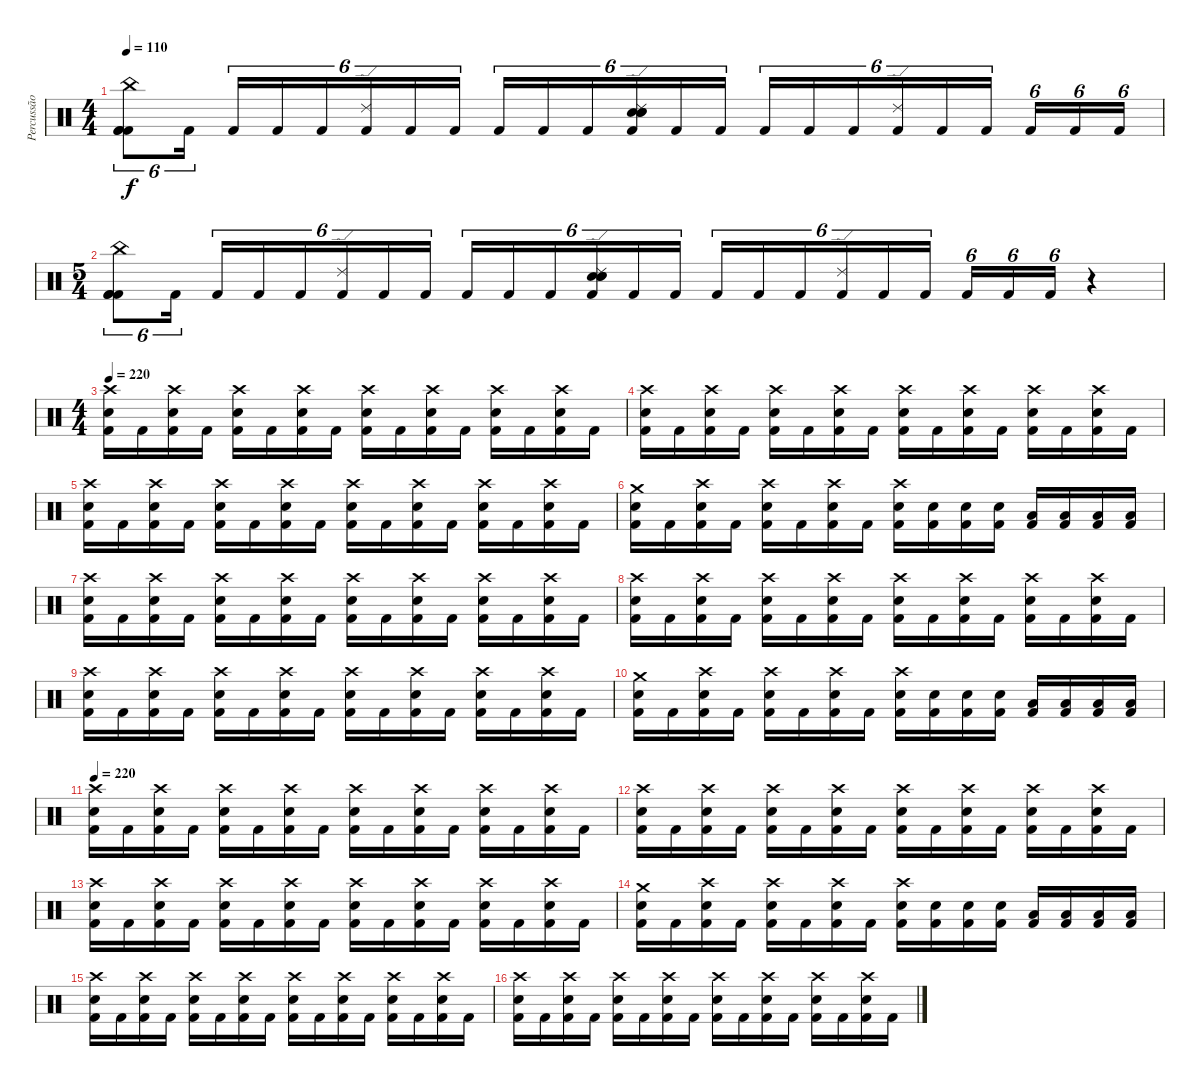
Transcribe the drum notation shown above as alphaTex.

\track ("Percussão" "Percussão") {instrument percussion}
\staff {score}
\articulation defaults
\ts (4 4)
\tempo 110
\clef neutral
\ks c
("China (hit)" "Kick (hit) 2" "Kick (hit) 2" "Kick (hit) 2").8{tu (6 4) dy f} "Kick (hit) 2".16{tu (6 4) beam splitsecondary} "Kick (hit) 2".16{tu (6 4)} "Kick (hit) 2".16{tu (6 4)} "Kick (hit) 2".16{tu (6 4)} ("Ride (edge) 2" "Kick (hit) 2").16{tu (6 4)} "Kick (hit) 2".16{tu (6 4)} "Kick (hit) 2".16{tu (6 4) beam splitsecondary} "Kick (hit) 2".16{tu (6 4)} "Kick (hit) 2".16{tu (6 4)} "Kick (hit) 2".16{tu (6 4)} ("Ride (edge) 2" "Electric Snare (hit)" "Electric Snare (hit)" "Electric Snare (hit)" "Kick (hit) 2").16{tu (6 4)} "Kick (hit) 2".16{tu (6 4)} "Kick (hit) 2".16{tu (6 4) beam splitsecondary} "Kick (hit) 2".16{tu (6 4)} "Kick (hit) 2".16{tu (6 4)} "Kick (hit) 2".16{tu (6 4)} ("Ride (edge) 2" "Kick (hit) 2").16{tu (6 4)} "Kick (hit) 2".16{tu (6 4)} "Kick (hit) 2".16{tu (6 4) beam splitsecondary} "Kick (hit) 2".16{tu (6 4)} "Kick (hit) 2".16{tu (6 4)} "Kick (hit) 2".16{tu (6 4)} |
\ts (5 4)
("China (hit)" "Kick (hit) 2" "Kick (hit) 2" "Kick (hit) 2").8{tu (6 4)} "Kick (hit) 2".16{tu (6 4) beam splitsecondary} "Kick (hit) 2".16{tu (6 4)} "Kick (hit) 2".16{tu (6 4)} "Kick (hit) 2".16{tu (6 4)} ("Ride (edge) 2" "Kick (hit) 2").16{tu (6 4)} "Kick (hit) 2".16{tu (6 4)} "Kick (hit) 2".16{tu (6 4) beam splitsecondary} "Kick (hit) 2".16{tu (6 4)} "Kick (hit) 2".16{tu (6 4)} "Kick (hit) 2".16{tu (6 4)} ("Ride (edge) 2" "Electric Snare (hit)" "Electric Snare (hit)" "Electric Snare (hit)" "Kick (hit) 2").16{tu (6 4)} "Kick (hit) 2".16{tu (6 4)} "Kick (hit) 2".16{tu (6 4) beam splitsecondary} "Kick (hit) 2".16{tu (6 4)} "Kick (hit) 2".16{tu (6 4)} "Kick (hit) 2".16{tu (6 4)} ("Ride (edge) 2" "Kick (hit) 2").16{tu (6 4)} "Kick (hit) 2".16{tu (6 4)} "Kick (hit) 2".16{tu (6 4) beam splitsecondary} "Kick (hit) 2".16{tu (6 4)} "Kick (hit) 2".16{tu (6 4)} "Kick (hit) 2".16{tu (6 4)} r.4 |
\ts (4 4)
\tempo 220
("Crash high (hit)" "Electric Snare (hit)" "Kick (hit) 2").16 "Kick (hit) 2".16 ("Crash high (hit)" "Electric Snare (hit)" "Kick (hit) 2").16 "Kick (hit) 2".16 ("Crash high (hit)" "Electric Snare (hit)" "Kick (hit) 2").16 "Kick (hit) 2".16 ("Crash high (hit)" "Electric Snare (hit)" "Kick (hit) 2").16 "Kick (hit) 2".16 ("Crash high (hit)" "Electric Snare (hit)" "Kick (hit) 2").16 "Kick (hit) 2".16 ("Crash high (hit)" "Electric Snare (hit)" "Kick (hit) 2").16 "Kick (hit) 2".16 ("Crash high (hit)" "Electric Snare (hit)" "Kick (hit) 2").16 "Kick (hit) 2".16 ("Crash high (hit)" "Electric Snare (hit)" "Kick (hit) 2").16 "Kick (hit) 2".16 |
("Crash high (hit)" "Electric Snare (hit)" "Kick (hit) 2").16 "Kick (hit) 2".16 ("Crash high (hit)" "Electric Snare (hit)" "Kick (hit) 2").16 "Kick (hit) 2".16 ("Crash high (hit)" "Electric Snare (hit)" "Kick (hit) 2").16 "Kick (hit) 2".16 ("Crash high (hit)" "Electric Snare (hit)" "Kick (hit) 2").16 "Kick (hit) 2".16 ("Crash high (hit)" "Electric Snare (hit)" "Kick (hit) 2").16 "Kick (hit) 2".16 ("Crash high (hit)" "Electric Snare (hit)" "Kick (hit) 2").16 "Kick (hit) 2".16 ("Crash high (hit)" "Electric Snare (hit)" "Kick (hit) 2").16 "Kick (hit) 2".16 ("Crash high (hit)" "Electric Snare (hit)" "Kick (hit) 2").16 "Kick (hit) 2".16 |
("Crash high (hit)" "Electric Snare (hit)" "Kick (hit) 2").16 "Kick (hit) 2".16 ("Crash high (hit)" "Electric Snare (hit)" "Kick (hit) 2").16 "Kick (hit) 2".16 ("Crash high (hit)" "Electric Snare (hit)" "Kick (hit) 2").16 "Kick (hit) 2".16 ("Crash high (hit)" "Electric Snare (hit)" "Kick (hit) 2").16 "Kick (hit) 2".16 ("Crash high (hit)" "Electric Snare (hit)" "Kick (hit) 2").16 "Kick (hit) 2".16 ("Crash high (hit)" "Electric Snare (hit)" "Kick (hit) 2").16 "Kick (hit) 2".16 ("Crash high (hit)" "Electric Snare (hit)" "Kick (hit) 2").16 "Kick (hit) 2".16 ("Crash high (hit)" "Electric Snare (hit)" "Kick (hit) 2").16 "Kick (hit) 2".16 |
("Crash medium (hit)" "Electric Snare (hit)" "Kick (hit) 2").16 "Kick (hit) 2".16 ("Crash high (hit)" "Electric Snare (hit)" "Kick (hit) 2").16 "Kick (hit) 2".16 ("Crash high (hit)" "Electric Snare (hit)" "Kick (hit) 2").16 "Kick (hit) 2".16 ("Crash high (hit)" "Electric Snare (hit)" "Kick (hit) 2").16 "Kick (hit) 2".16 ("Crash high (hit)" "Electric Snare (hit)" "Kick (hit) 2").16 ("Electric Snare (hit)" "Kick (hit) 2").16 ("Electric Snare (hit)" "Kick (hit) 2").16 ("Electric Snare (hit)" "Kick (hit) 2").16 ("Low Tom (hit)" "Kick (hit) 2").16 ("Low Tom (hit)" "Kick (hit) 2").16 ("Low Tom (hit)" "Kick (hit) 2").16 ("Low Tom (hit)" "Kick (hit) 2").16 |
("Crash high (hit)" "Electric Snare (hit)" "Kick (hit) 2").16 "Kick (hit) 2".16 ("Crash high (hit)" "Electric Snare (hit)" "Kick (hit) 2").16 "Kick (hit) 2".16 ("Crash high (hit)" "Electric Snare (hit)" "Kick (hit) 2").16 "Kick (hit) 2".16 ("Crash high (hit)" "Electric Snare (hit)" "Kick (hit) 2").16 "Kick (hit) 2".16 ("Crash high (hit)" "Electric Snare (hit)" "Kick (hit) 2").16 "Kick (hit) 2".16 ("Crash high (hit)" "Electric Snare (hit)" "Kick (hit) 2").16 "Kick (hit) 2".16 ("Crash high (hit)" "Electric Snare (hit)" "Kick (hit) 2").16 "Kick (hit) 2".16 ("Crash high (hit)" "Electric Snare (hit)" "Kick (hit) 2").16 "Kick (hit) 2".16 |
("Crash high (hit)" "Electric Snare (hit)" "Kick (hit) 2").16 "Kick (hit) 2".16 ("Crash high (hit)" "Electric Snare (hit)" "Kick (hit) 2").16 "Kick (hit) 2".16 ("Crash high (hit)" "Electric Snare (hit)" "Kick (hit) 2").16 "Kick (hit) 2".16 ("Crash high (hit)" "Electric Snare (hit)" "Kick (hit) 2").16 "Kick (hit) 2".16 ("Crash high (hit)" "Electric Snare (hit)" "Kick (hit) 2").16 "Kick (hit) 2".16 ("Crash high (hit)" "Electric Snare (hit)" "Kick (hit) 2").16 "Kick (hit) 2".16 ("Crash high (hit)" "Electric Snare (hit)" "Kick (hit) 2").16 "Kick (hit) 2".16 ("Crash high (hit)" "Electric Snare (hit)" "Kick (hit) 2").16 "Kick (hit) 2".16 |
("Crash high (hit)" "Electric Snare (hit)" "Kick (hit) 2").16 "Kick (hit) 2".16 ("Crash high (hit)" "Electric Snare (hit)" "Kick (hit) 2").16 "Kick (hit) 2".16 ("Crash high (hit)" "Electric Snare (hit)" "Kick (hit) 2").16 "Kick (hit) 2".16 ("Crash high (hit)" "Electric Snare (hit)" "Kick (hit) 2").16 "Kick (hit) 2".16 ("Crash high (hit)" "Electric Snare (hit)" "Kick (hit) 2").16 "Kick (hit) 2".16 ("Crash high (hit)" "Electric Snare (hit)" "Kick (hit) 2").16 "Kick (hit) 2".16 ("Crash high (hit)" "Electric Snare (hit)" "Kick (hit) 2").16 "Kick (hit) 2".16 ("Crash high (hit)" "Electric Snare (hit)" "Kick (hit) 2").16 "Kick (hit) 2".16 |
("Crash medium (hit)" "Electric Snare (hit)" "Kick (hit) 2").16 "Kick (hit) 2".16 ("Crash high (hit)" "Electric Snare (hit)" "Kick (hit) 2").16 "Kick (hit) 2".16 ("Crash high (hit)" "Electric Snare (hit)" "Kick (hit) 2").16 "Kick (hit) 2".16 ("Crash high (hit)" "Electric Snare (hit)" "Kick (hit) 2").16 "Kick (hit) 2".16 ("Crash high (hit)" "Electric Snare (hit)" "Kick (hit) 2").16 ("Electric Snare (hit)" "Kick (hit) 2").16 ("Electric Snare (hit)" "Kick (hit) 2").16 ("Electric Snare (hit)" "Kick (hit) 2").16 ("Low Tom (hit)" "Kick (hit) 2").16 ("Low Tom (hit)" "Kick (hit) 2").16 ("Low Tom (hit)" "Kick (hit) 2").16 ("Low Tom (hit)" "Kick (hit) 2").16 |
\tempo 220
("Crash high (hit)" "Electric Snare (hit)" "Kick (hit) 2").16 "Kick (hit) 2".16 ("Crash high (hit)" "Electric Snare (hit)" "Kick (hit) 2").16 "Kick (hit) 2".16 ("Crash high (hit)" "Electric Snare (hit)" "Kick (hit) 2").16 "Kick (hit) 2".16 ("Crash high (hit)" "Electric Snare (hit)" "Kick (hit) 2").16 "Kick (hit) 2".16 ("Crash high (hit)" "Electric Snare (hit)" "Kick (hit) 2").16 "Kick (hit) 2".16 ("Crash high (hit)" "Electric Snare (hit)" "Kick (hit) 2").16 "Kick (hit) 2".16 ("Crash high (hit)" "Electric Snare (hit)" "Kick (hit) 2").16 "Kick (hit) 2".16 ("Crash high (hit)" "Electric Snare (hit)" "Kick (hit) 2").16 "Kick (hit) 2".16 |
("Crash high (hit)" "Electric Snare (hit)" "Kick (hit) 2").16 "Kick (hit) 2".16 ("Crash high (hit)" "Electric Snare (hit)" "Kick (hit) 2").16 "Kick (hit) 2".16 ("Crash high (hit)" "Electric Snare (hit)" "Kick (hit) 2").16 "Kick (hit) 2".16 ("Crash high (hit)" "Electric Snare (hit)" "Kick (hit) 2").16 "Kick (hit) 2".16 ("Crash high (hit)" "Electric Snare (hit)" "Kick (hit) 2").16 "Kick (hit) 2".16 ("Crash high (hit)" "Electric Snare (hit)" "Kick (hit) 2").16 "Kick (hit) 2".16 ("Crash high (hit)" "Electric Snare (hit)" "Kick (hit) 2").16 "Kick (hit) 2".16 ("Crash high (hit)" "Electric Snare (hit)" "Kick (hit) 2").16 "Kick (hit) 2".16 |
("Crash high (hit)" "Electric Snare (hit)" "Kick (hit) 2").16 "Kick (hit) 2".16 ("Crash high (hit)" "Electric Snare (hit)" "Kick (hit) 2").16 "Kick (hit) 2".16 ("Crash high (hit)" "Electric Snare (hit)" "Kick (hit) 2").16 "Kick (hit) 2".16 ("Crash high (hit)" "Electric Snare (hit)" "Kick (hit) 2").16 "Kick (hit) 2".16 ("Crash high (hit)" "Electric Snare (hit)" "Kick (hit) 2").16 "Kick (hit) 2".16 ("Crash high (hit)" "Electric Snare (hit)" "Kick (hit) 2").16 "Kick (hit) 2".16 ("Crash high (hit)" "Electric Snare (hit)" "Kick (hit) 2").16 "Kick (hit) 2".16 ("Crash high (hit)" "Electric Snare (hit)" "Kick (hit) 2").16 "Kick (hit) 2".16 |
("Crash medium (hit)" "Electric Snare (hit)" "Kick (hit) 2").16 "Kick (hit) 2".16 ("Crash high (hit)" "Electric Snare (hit)" "Kick (hit) 2").16 "Kick (hit) 2".16 ("Crash high (hit)" "Electric Snare (hit)" "Kick (hit) 2").16 "Kick (hit) 2".16 ("Crash high (hit)" "Electric Snare (hit)" "Kick (hit) 2").16 "Kick (hit) 2".16 ("Crash high (hit)" "Electric Snare (hit)" "Kick (hit) 2").16 ("Electric Snare (hit)" "Kick (hit) 2").16 ("Electric Snare (hit)" "Kick (hit) 2").16 ("Electric Snare (hit)" "Kick (hit) 2").16 ("Low Tom (hit)" "Kick (hit) 2").16 ("Low Tom (hit)" "Kick (hit) 2").16 ("Low Tom (hit)" "Kick (hit) 2").16 ("Low Tom (hit)" "Kick (hit) 2").16 |
("Crash high (hit)" "Electric Snare (hit)" "Kick (hit) 2").16 "Kick (hit) 2".16 ("Crash high (hit)" "Electric Snare (hit)" "Kick (hit) 2").16 "Kick (hit) 2".16 ("Crash high (hit)" "Electric Snare (hit)" "Kick (hit) 2").16 "Kick (hit) 2".16 ("Crash high (hit)" "Electric Snare (hit)" "Kick (hit) 2").16 "Kick (hit) 2".16 ("Crash high (hit)" "Electric Snare (hit)" "Kick (hit) 2").16 "Kick (hit) 2".16 ("Crash high (hit)" "Electric Snare (hit)" "Kick (hit) 2").16 "Kick (hit) 2".16 ("Crash high (hit)" "Electric Snare (hit)" "Kick (hit) 2").16 "Kick (hit) 2".16 ("Crash high (hit)" "Electric Snare (hit)" "Kick (hit) 2").16 "Kick (hit) 2".16 |
("Crash high (hit)" "Electric Snare (hit)" "Kick (hit) 2").16 "Kick (hit) 2".16 ("Crash high (hit)" "Electric Snare (hit)" "Kick (hit) 2").16 "Kick (hit) 2".16 ("Crash high (hit)" "Electric Snare (hit)" "Kick (hit) 2").16 "Kick (hit) 2".16 ("Crash high (hit)" "Electric Snare (hit)" "Kick (hit) 2").16 "Kick (hit) 2".16 ("Crash high (hit)" "Electric Snare (hit)" "Kick (hit) 2").16 "Kick (hit) 2".16 ("Crash high (hit)" "Electric Snare (hit)" "Kick (hit) 2").16 "Kick (hit) 2".16 ("Crash high (hit)" "Electric Snare (hit)" "Kick (hit) 2").16 "Kick (hit) 2".16 ("Crash high (hit)" "Electric Snare (hit)" "Kick (hit) 2").16 "Kick (hit) 2".16
